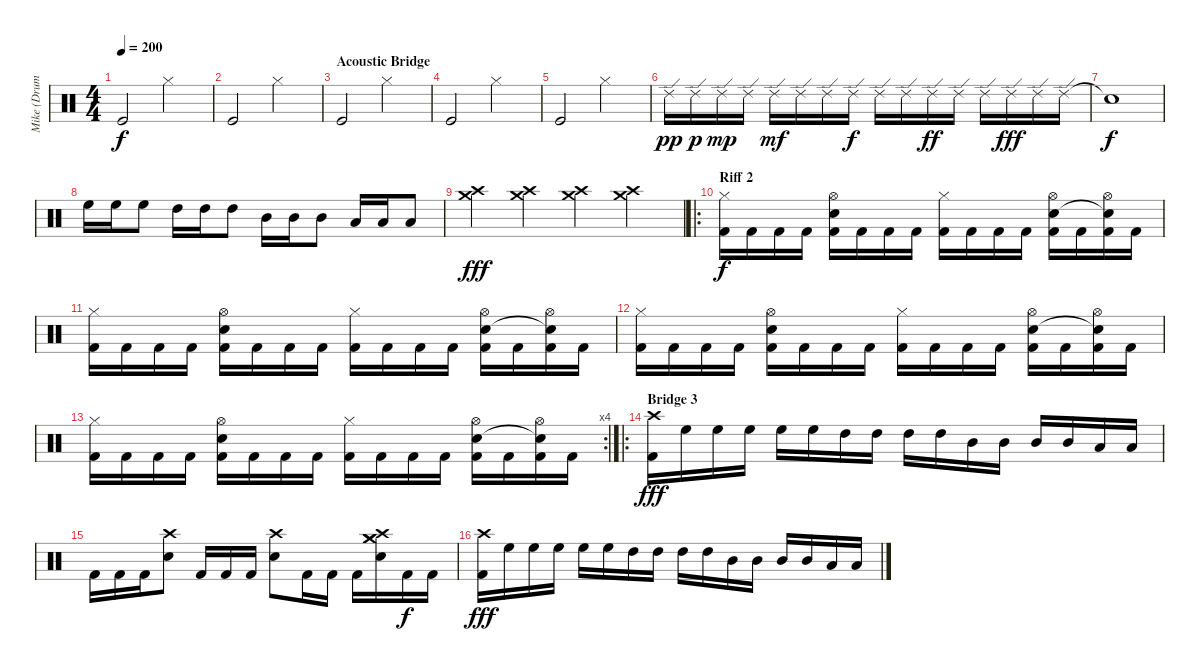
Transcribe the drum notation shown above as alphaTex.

\track ("Mike (Drums)" "Mike (Drum") {instrument percussion}
\staff {score}
\articulation defaults
\ts (4 4)
\tempo 200
\clef neutral
\ks c "Kick (hit)".2{dy f} "Hi-Hat (closed)".2
|
"Kick (hit)".2 "Hi-Hat (closed)".2 |
\section ("" "Acoustic Bridge")
"Kick (hit)".2 "Hi-Hat (closed)".2 |
"Kick (hit)".2 "Hi-Hat (closed)".2 |
"Kick (hit)".2 "Hi-Hat (closed)".2 |
"Ride (edge) 2".16{dy pp} "Ride (edge) 2".16{dy p} "Ride (edge) 2".16{dy mp} "Ride (edge) 2".16 "Ride (edge) 2".16{dy mf} "Ride (edge) 2".16 "Ride (edge) 2".16 "Ride (edge) 2".16{dy f} "Ride (edge) 2".16 "Ride (edge) 2".16 "Ride (edge) 2".16{dy ff} "Ride (edge) 2".16 "Ride (edge) 2".16 "Ride (edge) 2".16{dy fff} "Ride (edge) 2".16 "Ride (edge) 2".16 |
"Snare (hit)"{t}.1{dy f} |
"High Floor Tom (hit)".16 "High Floor Tom (hit)".16 "High Floor Tom (hit)".8 "High Tom (hit)".16 "High Tom (hit)".16 "High Tom (hit)".8 "Mid Tom (hit)".16 "Mid Tom (hit)".16 "Mid Tom (hit)".8 "Low Tom (hit)".16 "Low Tom (hit)".16 "Low Tom (hit)".8 |
("Crash high (hit)" "Crash medium (hit)").4{dy fff} ("Crash high (hit)" "Crash medium (hit)").4 ("Crash high (hit)" "Crash medium (hit)").4 ("Crash high (hit)" "Crash medium (hit)").4 |
\ro
\section ("" "Riff 2")
("Hi-Hat (closed)" "Kick (hit) 2").16{dy f} "Kick (hit) 2".16 "Kick (hit) 2".16 "Kick (hit) 2".16 ("Hi-Hat (open)" "Snare (hit) 2" "Kick (hit) 2").16 "Kick (hit) 2".16 "Kick (hit) 2".16 "Kick (hit) 2".16 ("Hi-Hat (closed)" "Kick (hit) 2").16 "Kick (hit) 2".16 "Kick (hit) 2".16 "Kick (hit) 2".16 ("Hi-Hat (open)" "Snare (hit) 2" "Kick (hit) 2").16 "Kick (hit) 2".16 ("Hi-Hat (open)" "Snare (hit)"{t} "Kick (hit) 2").16 "Kick (hit) 2".16 |
("Hi-Hat (closed)" "Kick (hit) 2").16 "Kick (hit) 2".16 "Kick (hit) 2".16 "Kick (hit) 2".16 ("Hi-Hat (open)" "Snare (hit) 2" "Kick (hit) 2").16 "Kick (hit) 2".16 "Kick (hit) 2".16 "Kick (hit) 2".16 ("Hi-Hat (closed)" "Kick (hit) 2").16 "Kick (hit) 2".16 "Kick (hit) 2".16 "Kick (hit) 2".16 ("Hi-Hat (open)" "Snare (hit) 2" "Kick (hit) 2").16 "Kick (hit) 2".16 ("Hi-Hat (open)" "Snare (hit)"{t} "Kick (hit) 2").16 "Kick (hit) 2".16 |
("Hi-Hat (closed)" "Kick (hit) 2").16 "Kick (hit) 2".16 "Kick (hit) 2".16 "Kick (hit) 2".16 ("Hi-Hat (open)" "Snare (hit) 2" "Kick (hit) 2").16 "Kick (hit) 2".16 "Kick (hit) 2".16 "Kick (hit) 2".16 ("Hi-Hat (closed)" "Kick (hit) 2").16 "Kick (hit) 2".16 "Kick (hit) 2".16 "Kick (hit) 2".16 ("Hi-Hat (open)" "Snare (hit) 2" "Kick (hit) 2").16 "Kick (hit) 2".16 ("Hi-Hat (open)" "Snare (hit)"{t} "Kick (hit) 2").16 "Kick (hit) 2".16 |
\rc 4
("Hi-Hat (closed)" "Kick (hit) 2").16 "Kick (hit) 2".16 "Kick (hit) 2".16 "Kick (hit) 2".16 ("Hi-Hat (open)" "Snare (hit) 2" "Kick (hit) 2").16 "Kick (hit) 2".16 "Kick (hit) 2".16 "Kick (hit) 2".16 ("Hi-Hat (closed)" "Kick (hit) 2").16 "Kick (hit) 2".16 "Kick (hit) 2".16 "Kick (hit) 2".16 ("Hi-Hat (open)" "Snare (hit) 2" "Kick (hit) 2").16 "Kick (hit) 2".16 ("Hi-Hat (open)" "Snare (hit)"{t} "Kick (hit) 2").16 "Kick (hit) 2".16 |
\ro
\section ("" "Bridge 3")
("Crash high (hit)" "Kick (hit) 2").16{dy fff} "High Floor Tom (hit)".16 "High Floor Tom (hit)".16 "High Floor Tom (hit)".16 "High Floor Tom (hit)".16 "High Floor Tom (hit)".16 "High Tom (hit)".16 "High Tom (hit)".16 "High Tom (hit)".16 "High Tom (hit)".16 "Mid Tom (hit)".16 "Mid Tom (hit)".16 "Mid Tom (hit)".16 "Mid Tom (hit)".16 "Low Tom (hit)".16 "Low Tom (hit)".16 |
"Kick (hit) 2".16 "Kick (hit) 2".16 "Kick (hit) 2".16 ("Snare (hit) 2" "Crash high (hit)").8 "Kick (hit) 2".16 "Kick (hit) 2".16 "Kick (hit) 2".16 ("Snare (hit) 2" "Crash high (hit)").8 "Kick (hit) 2".16 "Kick (hit) 2".16 "Kick (hit) 2".16 ("Crash high (hit)" "Crash medium (hit)" "Snare (hit) 2" "Crash medium (hit)").16 "Kick (hit) 2".16{dy f} "Kick (hit) 2".16 |
("Crash high (hit)" "Kick (hit) 2").16{dy fff} "High Floor Tom (hit)".16 "High Floor Tom (hit)".16 "High Floor Tom (hit)".16 "High Floor Tom (hit)".16 "High Floor Tom (hit)".16 "High Tom (hit)".16 "High Tom (hit)".16 "High Tom (hit)".16 "High Tom (hit)".16 "Mid Tom (hit)".16 "Mid Tom (hit)".16 "Mid Tom (hit)".16 "Mid Tom (hit)".16 "Low Tom (hit)".16 "Low Tom (hit)".16
